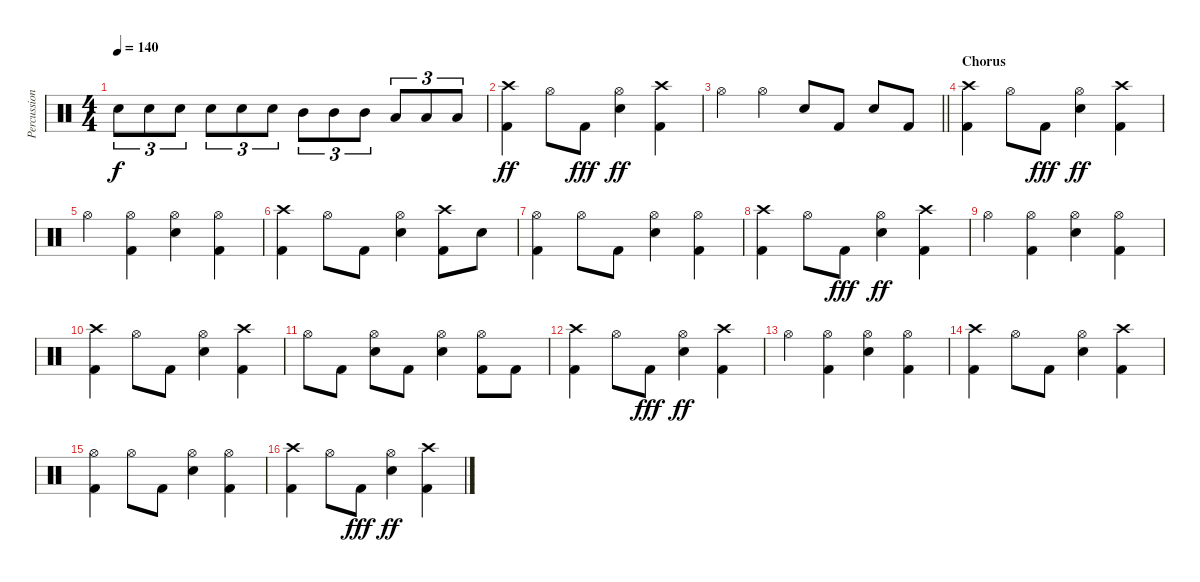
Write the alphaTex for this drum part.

\track ("Percussion" "Percussion") {instrument percussion}
\staff {score}
\articulation defaults
\ts (4 4)
\tempo 140
\clef neutral
\ks c "Snare (hit) 2".8{tu (3 2) dy f} "Snare (hit) 2".8{tu (3 2)} "Snare (hit) 2".8{tu (3 2)} "Snare (hit) 2".8{tu (3 2)} "Snare (hit) 2".8{tu (3 2)} "Snare (hit) 2".8{tu (3 2)} "Mid Tom (hit)".8{tu (3 2)} "Mid Tom (hit)".8{tu (3 2)} "Mid Tom (hit)".8{tu (3 2)} "Low Tom (hit)".8{tu (3 2)} "Low Tom (hit)".8{tu (3 2)} "Low Tom (hit)".8{tu (3 2)}
|
("Crash high (hit)" "Kick (hit) 2").4{dy ff} "Hi-Hat (open)".8 "Kick (hit) 2".8{dy fff} ("Hi-Hat (open)" "Snare (hit) 2").4{dy ff} ("Crash high (hit)" "Kick (hit) 2").4 |
\barLineRight lightlight "Hi-Hat (open)".4 "Hi-Hat (open)".4 "Snare (hit) 2".8 "Kick (hit) 2".8 "Snare (hit) 2".8 "Kick (hit) 2".8
|
\section ("" "Chorus")
("Crash high (hit)" "Kick (hit) 2").4 "Hi-Hat (open)".8 "Kick (hit) 2".8{dy fff} ("Hi-Hat (open)" "Snare (hit) 2").4{dy ff} ("Crash high (hit)" "Kick (hit) 2").4 |
"Hi-Hat (open)".4 ("Hi-Hat (open)" "Kick (hit) 2").4 ("Hi-Hat (open)" "Snare (hit) 2").4 ("Hi-Hat (open)" "Kick (hit) 2").4 |
("Crash high (hit)" "Kick (hit) 2").4 "Hi-Hat (open)".8 "Kick (hit) 2".8 ("Hi-Hat (open)" "Snare (hit) 2").4 ("Crash high (hit)" "Kick (hit) 2").8 "Snare (hit) 2".8 |
("Hi-Hat (open)" "Kick (hit) 2").4 "Hi-Hat (open)".8 "Kick (hit) 2".8 ("Hi-Hat (open)" "Snare (hit) 2").4 ("Hi-Hat (open)" "Kick (hit) 2").4 |
("Crash high (hit)" "Kick (hit) 2").4 "Hi-Hat (open)".8 "Kick (hit) 2".8{dy fff} ("Hi-Hat (open)" "Snare (hit) 2").4{dy ff} ("Crash high (hit)" "Kick (hit) 2").4 |
"Hi-Hat (open)".4 ("Hi-Hat (open)" "Kick (hit) 2").4 ("Hi-Hat (open)" "Snare (hit) 2").4 ("Hi-Hat (open)" "Kick (hit) 2").4 |
("Crash high (hit)" "Kick (hit) 2").4 "Hi-Hat (open)".8 "Kick (hit) 2".8 ("Hi-Hat (open)" "Snare (hit) 2").4 ("Crash high (hit)" "Kick (hit) 2").4 |
"Hi-Hat (open)".8 "Kick (hit) 2".8 ("Hi-Hat (open)" "Snare (hit) 2").8 "Kick (hit) 2".8 ("Hi-Hat (open)" "Snare (hit) 2").4 ("Hi-Hat (open)" "Kick (hit) 2").8 "Kick (hit) 2".8 |
("Crash high (hit)" "Kick (hit) 2").4 "Hi-Hat (open)".8 "Kick (hit) 2".8{dy fff} ("Hi-Hat (open)" "Snare (hit) 2").4{dy ff} ("Crash high (hit)" "Kick (hit) 2").4 |
"Hi-Hat (open)".4 ("Hi-Hat (open)" "Kick (hit) 2").4 ("Hi-Hat (open)" "Snare (hit) 2").4 ("Hi-Hat (open)" "Kick (hit) 2").4 |
("Crash high (hit)" "Kick (hit) 2").4 "Hi-Hat (open)".8 "Kick (hit) 2".8 ("Hi-Hat (open)" "Snare (hit) 2").4 ("Crash high (hit)" "Kick (hit) 2").4 |
("Hi-Hat (open)" "Kick (hit) 2").4 "Hi-Hat (open)".8 "Kick (hit) 2".8 ("Hi-Hat (open)" "Snare (hit) 2").4 ("Hi-Hat (open)" "Kick (hit) 2").4 |
("Crash high (hit)" "Kick (hit) 2").4 "Hi-Hat (open)".8 "Kick (hit) 2".8{dy fff} ("Hi-Hat (open)" "Snare (hit) 2").4{dy ff} ("Crash high (hit)" "Kick (hit) 2").4
